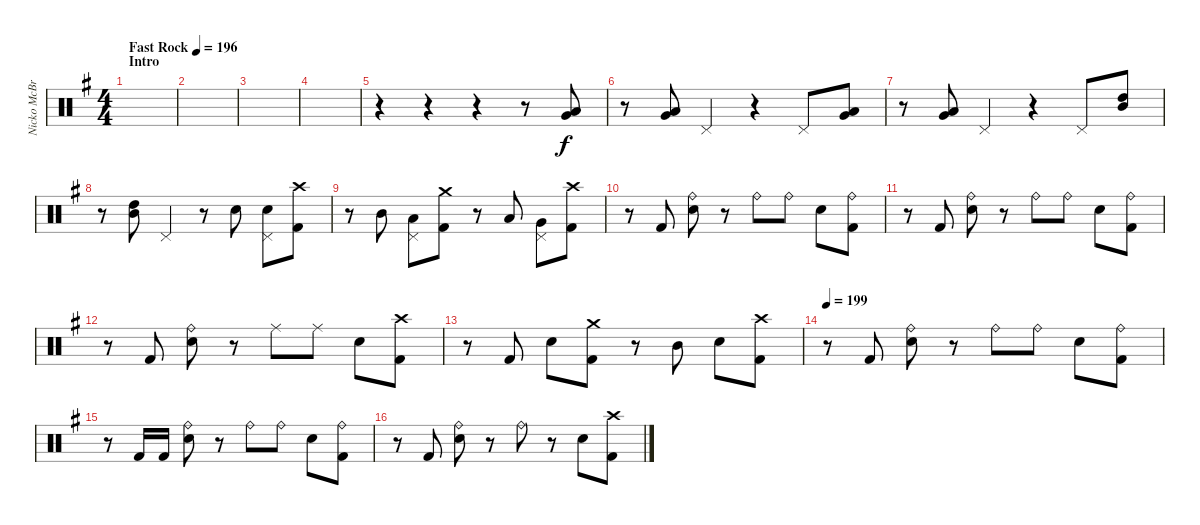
\track ("Nicko McBrain (Drums)" "Nicko McBr") {instrument percussion}
\staff {score}
\articulation defaults
\ts (4 4)
\section ("" "Intro")
\tempo (196 "Fast Rock")
\clef neutral
\ks eminor
|
|
|
|
r.4 r.4 r.4 r.8 ("Low Tom (hit)" "Very Low Tom (hit)").8 |
r.8 ("Low Tom (hit)" "Very Low Tom (hit)").8 "Pedal Hi-Hat (hit)".4 r.4 "Pedal Hi-Hat (hit)".8 ("Low Tom (hit)" "Very Low Tom (hit)").8 |
r.8 ("Low Tom (hit)" "Very Low Tom (hit)").8 "Pedal Hi-Hat (hit)".4 r.4 "Pedal Hi-Hat (hit)".8 ("High Tom (hit)" "Mid Tom (hit)").8 |
r.8 ("High Tom (hit)" "Mid Tom (hit)").8 "Pedal Hi-Hat (hit)".4 r.8 "Snare (hit) 2".8 ("Pedal Hi-Hat (hit)" "Snare (hit) 2").8 ("Crash high (hit)" "Kick (hit) 2").8 |
r.8 "Mid Tom (hit)".8 ("Pedal Hi-Hat (hit)" "Low Tom (hit)").8 ("Crash medium (hit)" "Kick (hit) 2").8 r.8 "Low Tom (hit)".8 ("Pedal Hi-Hat (hit)" "Very Low Tom (hit)").8 ("Crash high (hit)" "Kick (hit) 2").8 |
r.8 "Kick (hit) 2".8 ("Ride (bell)" "Snare (hit) 2").8 r.8 "Ride (bell)".8 "Ride (bell)".8 "Snare (hit) 2".8 ("Ride (bell)" "Kick (hit) 2").8 |
r.8 "Kick (hit) 2".8 ("Ride (bell)" "Snare (hit) 2").8 r.8 "Ride (bell)".8 "Ride (bell)".8 "Snare (hit) 2".8 ("Ride (bell)" "Kick (hit) 2").8 |
r.8 "Kick (hit) 2".8 ("Ride (bell)" "Snare (hit) 2").8 r.8 "Ride (middle)".8 "Ride (middle)".8 "Snare (hit) 2".8 ("Crash high (hit)" "Kick (hit) 2").8 |
r.8 "Kick (hit) 2".8 "Snare (hit) 2".8 ("Crash medium (hit)" "Kick (hit) 2").8 r.8 "Mid Tom (hit)".8 "Snare (hit) 2".8 ("Crash high (hit)" "Kick (hit) 2").8 |
\tempo 199
r.8 "Kick (hit) 2".8 ("Ride (bell)" "Snare (hit) 2").8 r.8 "Ride (bell)".8 "Ride (bell)".8 "Snare (hit) 2".8 ("Ride (bell)" "Kick (hit) 2").8 |
r.8 "Kick (hit) 2".16 "Kick (hit) 2".16 ("Ride (bell)" "Snare (hit) 2").8 r.8 "Ride (bell)".8 "Ride (bell)".8 "Snare (hit) 2".8 ("Ride (bell)" "Kick (hit) 2").8 |
r.8 "Kick (hit) 2".8 ("Ride (bell)" "Snare (hit) 2").8 r.8 "Ride (bell)".8 r.8 "Snare (hit) 2".8 ("Crash high (hit)" "Kick (hit) 2").8
